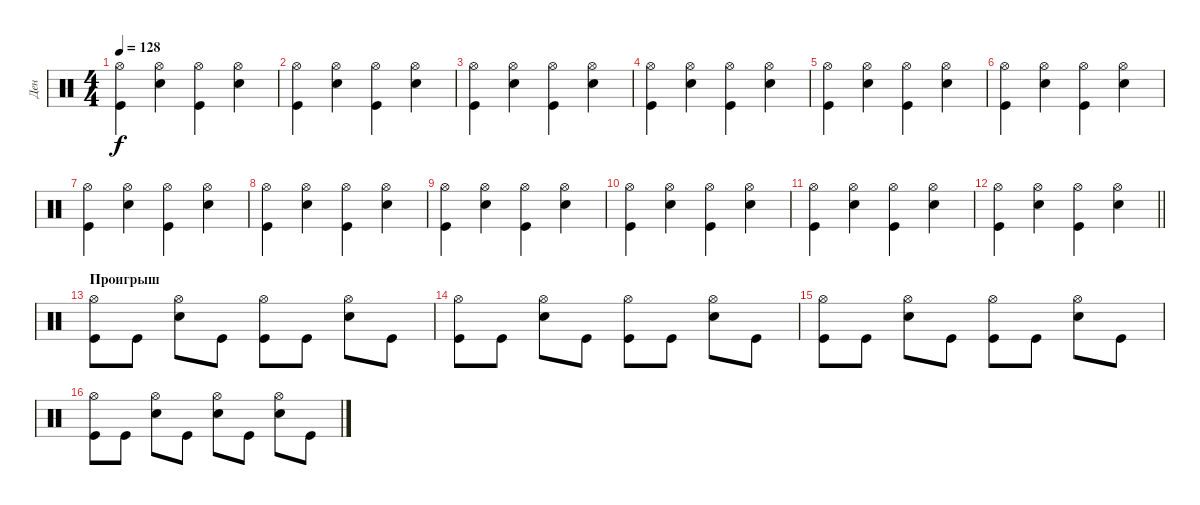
\track ("Ден" "Ден") {instrument percussion}
\staff
\articulation defaults
\ts (4 4)
\tempo 128
\clef neutral
\ks c
("Kick (hit)" "Hi-Hat (open)").4{dy f} ("Snare (hit) 2" "Hi-Hat (open)").4 ("Kick (hit)" "Hi-Hat (open)").4 ("Snare (hit) 2" "Hi-Hat (open)").4 |
("Kick (hit)" "Hi-Hat (open)").4 ("Snare (hit) 2" "Hi-Hat (open)").4 ("Kick (hit)" "Hi-Hat (open)").4 ("Snare (hit) 2" "Hi-Hat (open)").4 |
("Kick (hit)" "Hi-Hat (open)").4 ("Snare (hit) 2" "Hi-Hat (open)").4 ("Kick (hit)" "Hi-Hat (open)").4 ("Snare (hit) 2" "Hi-Hat (open)").4 |
("Kick (hit)" "Hi-Hat (open)").4 ("Snare (hit) 2" "Hi-Hat (open)").4 ("Kick (hit)" "Hi-Hat (open)").4 ("Snare (hit) 2" "Hi-Hat (open)").4 |
("Kick (hit)" "Hi-Hat (open)").4 ("Snare (hit) 2" "Hi-Hat (open)").4 ("Kick (hit)" "Hi-Hat (open)").4 ("Snare (hit) 2" "Hi-Hat (open)").4 |
("Kick (hit)" "Hi-Hat (open)").4 ("Snare (hit) 2" "Hi-Hat (open)").4 ("Kick (hit)" "Hi-Hat (open)").4 ("Snare (hit) 2" "Hi-Hat (open)").4 |
("Kick (hit)" "Hi-Hat (open)").4 ("Snare (hit) 2" "Hi-Hat (open)").4 ("Kick (hit)" "Hi-Hat (open)").4 ("Snare (hit) 2" "Hi-Hat (open)").4 |
("Kick (hit)" "Hi-Hat (open)").4 ("Snare (hit) 2" "Hi-Hat (open)").4 ("Kick (hit)" "Hi-Hat (open)").4 ("Snare (hit) 2" "Hi-Hat (open)").4 |
("Kick (hit)" "Hi-Hat (open)").4 ("Snare (hit) 2" "Hi-Hat (open)").4 ("Kick (hit)" "Hi-Hat (open)").4 ("Snare (hit) 2" "Hi-Hat (open)").4 |
("Kick (hit)" "Hi-Hat (open)").4 ("Snare (hit) 2" "Hi-Hat (open)").4 ("Kick (hit)" "Hi-Hat (open)").4 ("Snare (hit) 2" "Hi-Hat (open)").4 |
("Kick (hit)" "Hi-Hat (open)").4 ("Snare (hit) 2" "Hi-Hat (open)").4 ("Kick (hit)" "Hi-Hat (open)").4 ("Snare (hit) 2" "Hi-Hat (open)").4 |
\barLineRight lightlight
("Kick (hit)" "Hi-Hat (open)").4 ("Snare (hit) 2" "Hi-Hat (open)").4 ("Kick (hit)" "Hi-Hat (open)").4 ("Snare (hit) 2" "Hi-Hat (open)").4 |
\section ("" "Проигрыш")
("Kick (hit)" "Hi-Hat (open)").8 "Kick (hit)".8 ("Snare (hit) 2" "Hi-Hat (open)").8 "Kick (hit)".8 ("Kick (hit)" "Hi-Hat (open)").8 "Kick (hit)".8 ("Snare (hit) 2" "Hi-Hat (open)").8 "Kick (hit)".8 |
("Kick (hit)" "Hi-Hat (open)").8 "Kick (hit)".8 ("Snare (hit) 2" "Hi-Hat (open)").8 "Kick (hit)".8 ("Kick (hit)" "Hi-Hat (open)").8 "Kick (hit)".8 ("Snare (hit) 2" "Hi-Hat (open)").8 "Kick (hit)".8 |
("Kick (hit)" "Hi-Hat (open)").8 "Kick (hit)".8 ("Snare (hit) 2" "Hi-Hat (open)").8 "Kick (hit)".8 ("Kick (hit)" "Hi-Hat (open)").8 "Kick (hit)".8 ("Snare (hit) 2" "Hi-Hat (open)").8 "Kick (hit)".8 |
("Kick (hit)" "Hi-Hat (open)").8 "Kick (hit)".8 ("Snare (hit) 2" "Hi-Hat (open)").8 "Kick (hit)".8 ("Snare (hit) 2" "Hi-Hat (open)").8 "Kick (hit)".8 ("Snare (hit) 2" "Hi-Hat (open)").8 "Kick (hit)".8
